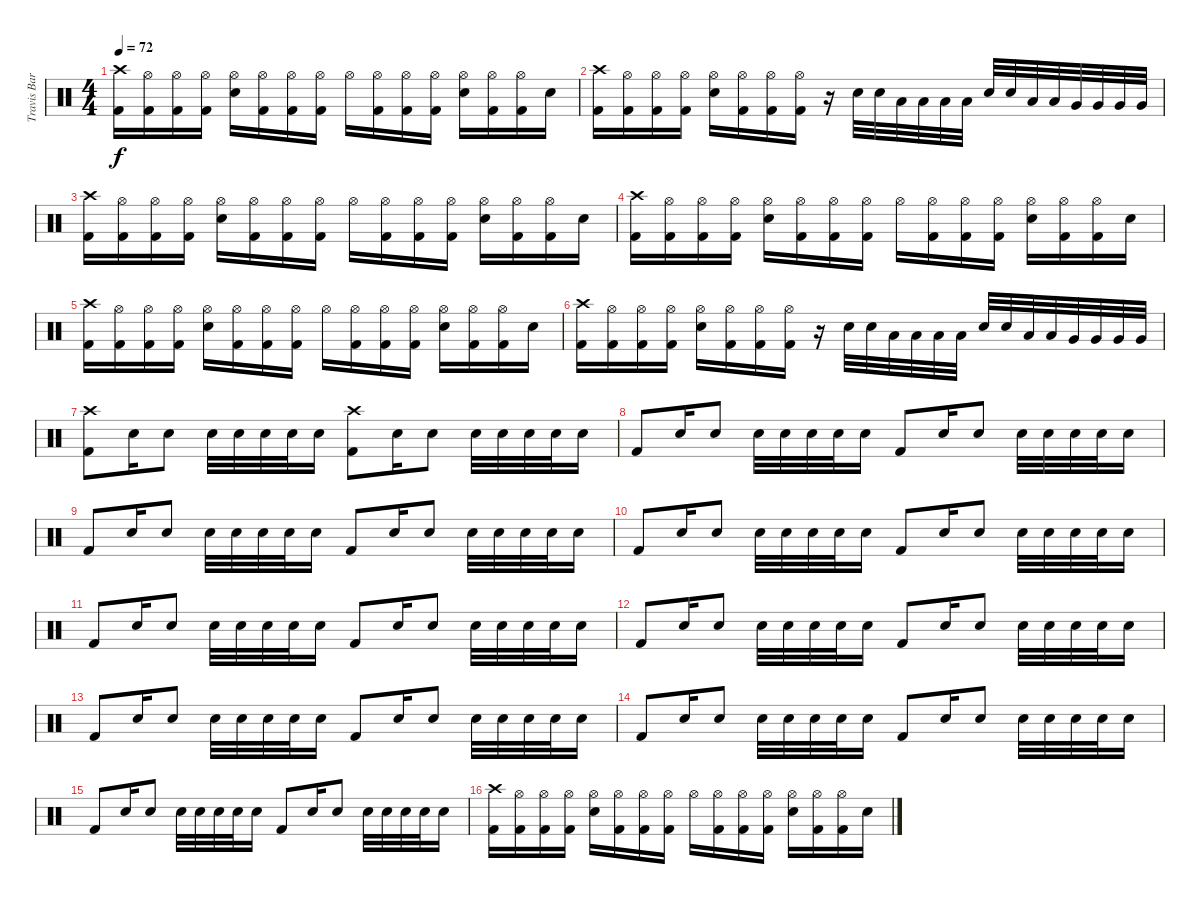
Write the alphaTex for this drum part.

\track ("Travis Barker" "Travis Bar") {instrument percussion}
\staff {score}
\articulation defaults
\ts (4 4)
\tempo 72
\clef neutral
\ks c
("Crash high (hit)" "Kick (hit) 2").16{dy f} ("Hi-Hat (open)" "Kick (hit) 2").16 ("Hi-Hat (open)" "Kick (hit) 2").16 ("Hi-Hat (open)" "Kick (hit) 2").16 ("Hi-Hat (open)" "Electric Snare (hit)").16 ("Hi-Hat (open)" "Kick (hit) 2").16 ("Hi-Hat (open)" "Kick (hit) 2").16 ("Hi-Hat (open)" "Kick (hit) 2").16 "Hi-Hat (open)".16 ("Hi-Hat (open)" "Kick (hit) 2").16 ("Hi-Hat (open)" "Kick (hit) 2").16 ("Hi-Hat (open)" "Kick (hit) 2").16 ("Hi-Hat (open)" "Electric Snare (hit)").16 ("Hi-Hat (open)" "Kick (hit) 2").16 ("Hi-Hat (open)" "Kick (hit) 2").16 "Electric Snare (hit)".16 |
("Crash high (hit)" "Kick (hit) 2").16 ("Hi-Hat (open)" "Kick (hit) 2").16 ("Hi-Hat (open)" "Kick (hit) 2").16 ("Hi-Hat (open)" "Kick (hit) 2").16 ("Hi-Hat (open)" "Electric Snare (hit)").16 ("Hi-Hat (open)" "Kick (hit) 2").16 ("Hi-Hat (open)" "Kick (hit) 2").16 ("Hi-Hat (open)" "Kick (hit) 2").16 r.16 "Electric Snare (hit)".32 "Electric Snare (hit)".32 "Low Tom (hit)".32 "Low Tom (hit)".32 "Low Tom (hit)".32 "Low Tom (hit)".32 "Electric Snare (hit)".32 "Electric Snare (hit)".32 "Low Tom (hit)".32 "Low Tom (hit)".32 "Very Low Tom (hit)".32 "Very Low Tom (hit)".32 "Very Low Tom (hit)".32 "Very Low Tom (hit)".32 |
("Crash high (hit)" "Kick (hit) 2").16 ("Hi-Hat (open)" "Kick (hit) 2").16 ("Hi-Hat (open)" "Kick (hit) 2").16 ("Hi-Hat (open)" "Kick (hit) 2").16 ("Hi-Hat (open)" "Electric Snare (hit)").16 ("Hi-Hat (open)" "Kick (hit) 2").16 ("Hi-Hat (open)" "Kick (hit) 2").16 ("Hi-Hat (open)" "Kick (hit) 2").16 "Hi-Hat (open)".16 ("Hi-Hat (open)" "Kick (hit) 2").16 ("Hi-Hat (open)" "Kick (hit) 2").16 ("Hi-Hat (open)" "Kick (hit) 2").16 ("Hi-Hat (open)" "Electric Snare (hit)").16 ("Hi-Hat (open)" "Kick (hit) 2").16 ("Hi-Hat (open)" "Kick (hit) 2").16 "Electric Snare (hit)".16 |
("Crash high (hit)" "Kick (hit) 2").16 ("Hi-Hat (open)" "Kick (hit) 2").16 ("Hi-Hat (open)" "Kick (hit) 2").16 ("Hi-Hat (open)" "Kick (hit) 2").16 ("Hi-Hat (open)" "Electric Snare (hit)").16 ("Hi-Hat (open)" "Kick (hit) 2").16 ("Hi-Hat (open)" "Kick (hit) 2").16 ("Hi-Hat (open)" "Kick (hit) 2").16 "Hi-Hat (open)".16 ("Hi-Hat (open)" "Kick (hit) 2").16 ("Hi-Hat (open)" "Kick (hit) 2").16 ("Hi-Hat (open)" "Kick (hit) 2").16 ("Hi-Hat (open)" "Electric Snare (hit)").16 ("Hi-Hat (open)" "Kick (hit) 2").16 ("Hi-Hat (open)" "Kick (hit) 2").16 "Electric Snare (hit)".16 |
("Crash high (hit)" "Kick (hit) 2").16 ("Hi-Hat (open)" "Kick (hit) 2").16 ("Hi-Hat (open)" "Kick (hit) 2").16 ("Hi-Hat (open)" "Kick (hit) 2").16 ("Hi-Hat (open)" "Electric Snare (hit)").16 ("Hi-Hat (open)" "Kick (hit) 2").16 ("Hi-Hat (open)" "Kick (hit) 2").16 ("Hi-Hat (open)" "Kick (hit) 2").16 "Hi-Hat (open)".16 ("Hi-Hat (open)" "Kick (hit) 2").16 ("Hi-Hat (open)" "Kick (hit) 2").16 ("Hi-Hat (open)" "Kick (hit) 2").16 ("Hi-Hat (open)" "Electric Snare (hit)").16 ("Hi-Hat (open)" "Kick (hit) 2").16 ("Hi-Hat (open)" "Kick (hit) 2").16 "Electric Snare (hit)".16 |
("Crash high (hit)" "Kick (hit) 2").16 ("Hi-Hat (open)" "Kick (hit) 2").16 ("Hi-Hat (open)" "Kick (hit) 2").16 ("Hi-Hat (open)" "Kick (hit) 2").16 ("Hi-Hat (open)" "Electric Snare (hit)").16 ("Hi-Hat (open)" "Kick (hit) 2").16 ("Hi-Hat (open)" "Kick (hit) 2").16 ("Hi-Hat (open)" "Kick (hit) 2").16 r.16 "Electric Snare (hit)".32 "Electric Snare (hit)".32 "Low Tom (hit)".32 "Low Tom (hit)".32 "Low Tom (hit)".32 "Low Tom (hit)".32 "Electric Snare (hit)".32 "Electric Snare (hit)".32 "Low Tom (hit)".32 "Low Tom (hit)".32 "Very Low Tom (hit)".32 "Very Low Tom (hit)".32 "Very Low Tom (hit)".32 "Very Low Tom (hit)".32 |
("Crash high (hit)" "Kick (hit) 2").8 "Electric Snare (hit)".16 "Electric Snare (hit)".8 "Electric Snare (hit)".32 "Electric Snare (hit)".32 "Electric Snare (hit)".32 "Electric Snare (hit)".32 "Electric Snare (hit)".16 ("Crash high (hit)" "Kick (hit) 2").8 "Electric Snare (hit)".16 "Electric Snare (hit)".8 "Electric Snare (hit)".32 "Electric Snare (hit)".32 "Electric Snare (hit)".32 "Electric Snare (hit)".32 "Electric Snare (hit)".16 |
"Kick (hit) 2".8 "Electric Snare (hit)".16 "Electric Snare (hit)".8 "Electric Snare (hit)".32 "Electric Snare (hit)".32 "Electric Snare (hit)".32 "Electric Snare (hit)".32 "Electric Snare (hit)".16 "Kick (hit) 2".8 "Electric Snare (hit)".16 "Electric Snare (hit)".8 "Electric Snare (hit)".32 "Electric Snare (hit)".32 "Electric Snare (hit)".32 "Electric Snare (hit)".32 "Electric Snare (hit)".16 |
"Kick (hit) 2".8 "Electric Snare (hit)".16 "Electric Snare (hit)".8 "Electric Snare (hit)".32 "Electric Snare (hit)".32 "Electric Snare (hit)".32 "Electric Snare (hit)".32 "Electric Snare (hit)".16 "Kick (hit) 2".8 "Electric Snare (hit)".16 "Electric Snare (hit)".8 "Electric Snare (hit)".32 "Electric Snare (hit)".32 "Electric Snare (hit)".32 "Electric Snare (hit)".32 "Electric Snare (hit)".16 |
"Kick (hit) 2".8 "Electric Snare (hit)".16 "Electric Snare (hit)".8 "Electric Snare (hit)".32 "Electric Snare (hit)".32 "Electric Snare (hit)".32 "Electric Snare (hit)".32 "Electric Snare (hit)".16 "Kick (hit) 2".8 "Electric Snare (hit)".16 "Electric Snare (hit)".8 "Electric Snare (hit)".32 "Electric Snare (hit)".32 "Electric Snare (hit)".32 "Electric Snare (hit)".32 "Electric Snare (hit)".16 |
"Kick (hit) 2".8 "Electric Snare (hit)".16 "Electric Snare (hit)".8 "Electric Snare (hit)".32 "Electric Snare (hit)".32 "Electric Snare (hit)".32 "Electric Snare (hit)".32 "Electric Snare (hit)".16 "Kick (hit) 2".8 "Electric Snare (hit)".16 "Electric Snare (hit)".8 "Electric Snare (hit)".32 "Electric Snare (hit)".32 "Electric Snare (hit)".32 "Electric Snare (hit)".32 "Electric Snare (hit)".16 |
"Kick (hit) 2".8 "Electric Snare (hit)".16 "Electric Snare (hit)".8 "Electric Snare (hit)".32 "Electric Snare (hit)".32 "Electric Snare (hit)".32 "Electric Snare (hit)".32 "Electric Snare (hit)".16 "Kick (hit) 2".8 "Electric Snare (hit)".16 "Electric Snare (hit)".8 "Electric Snare (hit)".32 "Electric Snare (hit)".32 "Electric Snare (hit)".32 "Electric Snare (hit)".32 "Electric Snare (hit)".16 |
"Kick (hit) 2".8 "Electric Snare (hit)".16 "Electric Snare (hit)".8 "Electric Snare (hit)".32 "Electric Snare (hit)".32 "Electric Snare (hit)".32 "Electric Snare (hit)".32 "Electric Snare (hit)".16 "Kick (hit) 2".8 "Electric Snare (hit)".16 "Electric Snare (hit)".8 "Electric Snare (hit)".32 "Electric Snare (hit)".32 "Electric Snare (hit)".32 "Electric Snare (hit)".32 "Electric Snare (hit)".16 |
"Kick (hit) 2".8 "Electric Snare (hit)".16 "Electric Snare (hit)".8 "Electric Snare (hit)".32 "Electric Snare (hit)".32 "Electric Snare (hit)".32 "Electric Snare (hit)".32 "Electric Snare (hit)".16 "Kick (hit) 2".8 "Electric Snare (hit)".16 "Electric Snare (hit)".8 "Electric Snare (hit)".32 "Electric Snare (hit)".32 "Electric Snare (hit)".32 "Electric Snare (hit)".32 "Electric Snare (hit)".16 |
"Kick (hit) 2".8 "Electric Snare (hit)".16 "Electric Snare (hit)".8 "Electric Snare (hit)".32 "Electric Snare (hit)".32 "Electric Snare (hit)".32 "Electric Snare (hit)".32 "Electric Snare (hit)".16 "Kick (hit) 2".8 "Electric Snare (hit)".16 "Electric Snare (hit)".8 "Electric Snare (hit)".32 "Electric Snare (hit)".32 "Electric Snare (hit)".32 "Electric Snare (hit)".32 "Electric Snare (hit)".16 |
("Crash high (hit)" "Kick (hit) 2").16 ("Hi-Hat (open)" "Kick (hit) 2").16 ("Hi-Hat (open)" "Kick (hit) 2").16 ("Hi-Hat (open)" "Kick (hit) 2").16 ("Hi-Hat (open)" "Electric Snare (hit)").16 ("Hi-Hat (open)" "Kick (hit) 2").16 ("Hi-Hat (open)" "Kick (hit) 2").16 ("Hi-Hat (open)" "Kick (hit) 2").16 "Hi-Hat (open)".16 ("Hi-Hat (open)" "Kick (hit) 2").16 ("Hi-Hat (open)" "Kick (hit) 2").16 ("Hi-Hat (open)" "Kick (hit) 2").16 ("Hi-Hat (open)" "Electric Snare (hit)").16 ("Hi-Hat (open)" "Kick (hit) 2").16 ("Hi-Hat (open)" "Kick (hit) 2").16 "Electric Snare (hit)".16
